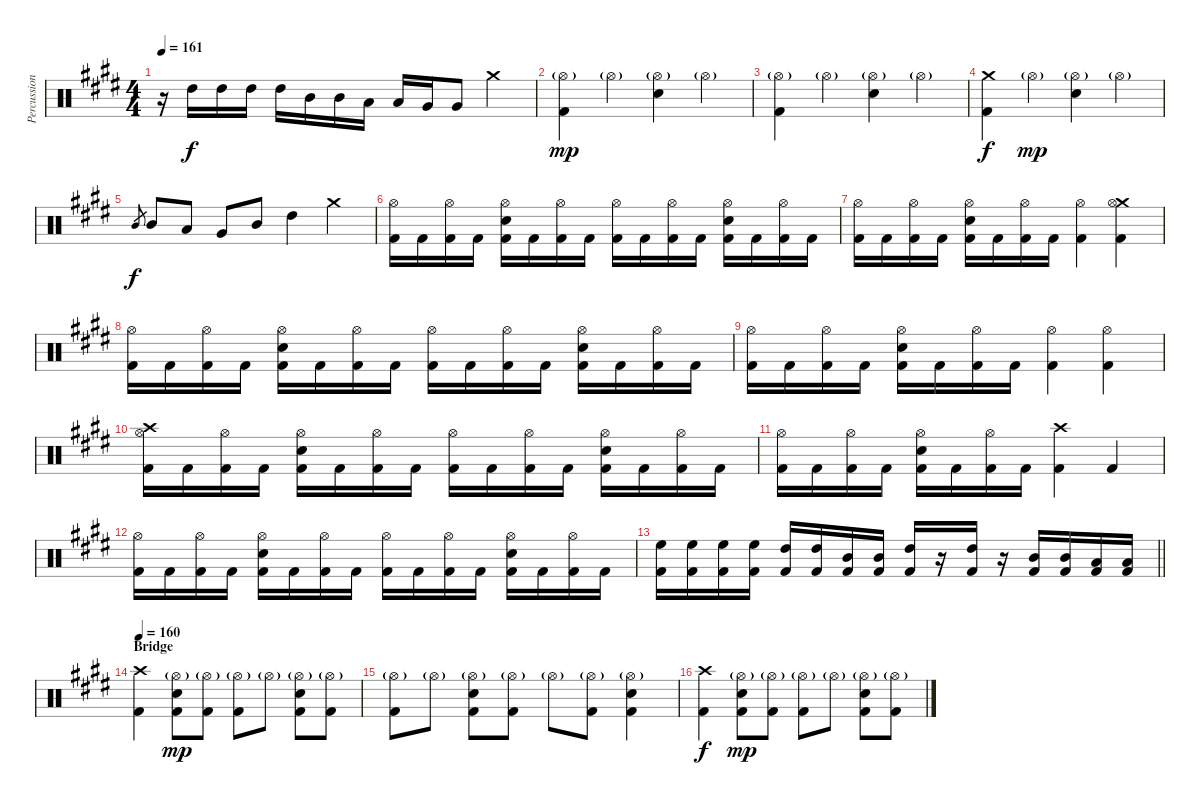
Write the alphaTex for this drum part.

\track ("Percussion (Thomen Stauch)" "Percussion") {instrument percussion}
\staff {score}
\articulation defaults
\ts (4 4)
\tempo 161
\clef neutral
\ks c#minor
r.16{dy mp} "High Tom (hit)".16{dy f} "High Tom (hit)".16 "High Tom (hit)".16 "High Tom (hit)".16 "Mid Tom (hit)".16 "Mid Tom (hit)".16 "Low Tom (hit)".16 "Low Tom (hit)".16 "Very Low Tom (hit)".16 "Very Low Tom (hit)".8 "Crash medium (hit)".4 |
("Hi-Hat (open)"{g} "Kick (hit) 2").4{dy mp} "Hi-Hat (open)"{g}.4 ("Hi-Hat (open)"{g} "Snare (hit) 2").4 "Hi-Hat (open)"{g}.4 |
("Hi-Hat (open)"{g} "Kick (hit) 2").4 "Hi-Hat (open)"{g}.4 ("Hi-Hat (open)"{g} "Snare (hit) 2").4 "Hi-Hat (open)"{g}.4 |
("Crash medium (hit)" "Kick (hit) 2").4{dy f} "Hi-Hat (open)"{g}.4{dy mp} ("Hi-Hat (open)"{g} "Snare (hit) 2").4 "Hi-Hat (open)"{g}.4 |
"Mid Tom (hit)".8{gr dy f} "Mid Tom (hit)".8 "Low Tom (hit)".8 "Very Low Tom (hit)".8 "Mid Tom (hit)".8 "High Tom (hit)".4 "Crash medium (hit)".4 |
("Hi-Hat (open)" "Kick (hit) 2").16 "Kick (hit) 2".16 ("Hi-Hat (open)" "Kick (hit) 2").16 "Kick (hit) 2".16 ("Hi-Hat (open)" "Snare (hit) 2" "Kick (hit) 2").16 "Kick (hit) 2".16 ("Hi-Hat (open)" "Kick (hit) 2").16 "Kick (hit) 2".16 ("Hi-Hat (open)" "Kick (hit) 2").16 "Kick (hit) 2".16 ("Hi-Hat (open)" "Kick (hit) 2").16 "Kick (hit) 2".16 ("Hi-Hat (open)" "Snare (hit) 2" "Kick (hit) 2").16 "Kick (hit) 2".16 ("Hi-Hat (open)" "Kick (hit) 2").16 "Kick (hit) 2".16 |
("Hi-Hat (open)" "Kick (hit) 2").16 "Kick (hit) 2".16 ("Hi-Hat (open)" "Kick (hit) 2").16 "Kick (hit) 2".16 ("Hi-Hat (open)" "Snare (hit) 2" "Kick (hit) 2").16 "Kick (hit) 2".16 ("Hi-Hat (open)" "Kick (hit) 2").16 "Kick (hit) 2".16 ("Hi-Hat (open)" "Kick (hit) 2").4 ("Crash medium (hit)" "Hi-Hat (open)" "Kick (hit) 2").4 |
("Hi-Hat (open)" "Kick (hit) 2").16 "Kick (hit) 2".16 ("Hi-Hat (open)" "Kick (hit) 2").16 "Kick (hit) 2".16 ("Hi-Hat (open)" "Snare (hit) 2" "Kick (hit) 2").16 "Kick (hit) 2".16 ("Hi-Hat (open)" "Kick (hit) 2").16 "Kick (hit) 2".16 ("Hi-Hat (open)" "Kick (hit) 2").16 "Kick (hit) 2".16 ("Hi-Hat (open)" "Kick (hit) 2").16 "Kick (hit) 2".16 ("Hi-Hat (open)" "Snare (hit) 2" "Kick (hit) 2").16 "Kick (hit) 2".16 ("Hi-Hat (open)" "Kick (hit) 2").16 "Kick (hit) 2".16 |
("Hi-Hat (open)" "Kick (hit) 2").16 "Kick (hit) 2".16 ("Hi-Hat (open)" "Kick (hit) 2").16 "Kick (hit) 2".16 ("Hi-Hat (open)" "Snare (hit) 2" "Kick (hit) 2").16 "Kick (hit) 2".16 ("Hi-Hat (open)" "Kick (hit) 2").16 "Kick (hit) 2".16 ("Hi-Hat (open)" "Kick (hit) 2").4 ("Hi-Hat (open)" "Kick (hit) 2").4 |
("Crash high (hit)" "Hi-Hat (open)" "Kick (hit) 2").16 "Kick (hit) 2".16 ("Hi-Hat (open)" "Kick (hit) 2").16 "Kick (hit) 2".16 ("Hi-Hat (open)" "Snare (hit) 2" "Kick (hit) 2").16 "Kick (hit) 2".16 ("Hi-Hat (open)" "Kick (hit) 2").16 "Kick (hit) 2".16 ("Hi-Hat (open)" "Kick (hit) 2").16 "Kick (hit) 2".16 ("Hi-Hat (open)" "Kick (hit) 2").16 "Kick (hit) 2".16 ("Hi-Hat (open)" "Snare (hit) 2" "Kick (hit) 2").16 "Kick (hit) 2".16 ("Hi-Hat (open)" "Kick (hit) 2").16 "Kick (hit) 2".16 |
("Hi-Hat (open)" "Kick (hit) 2").16 "Kick (hit) 2".16 ("Hi-Hat (open)" "Kick (hit) 2").16 "Kick (hit) 2".16 ("Hi-Hat (open)" "Snare (hit) 2" "Kick (hit) 2").16 "Kick (hit) 2".16 ("Hi-Hat (open)" "Kick (hit) 2").16 "Kick (hit) 2".16 ("Crash high (hit)" "Kick (hit) 2").4 "Kick (hit) 2".4 |
("Hi-Hat (open)" "Kick (hit) 2").16 "Kick (hit) 2".16 ("Hi-Hat (open)" "Kick (hit) 2").16 "Kick (hit) 2".16 ("Hi-Hat (open)" "Snare (hit) 2" "Kick (hit) 2").16 "Kick (hit) 2".16 ("Hi-Hat (open)" "Kick (hit) 2").16 "Kick (hit) 2".16 ("Hi-Hat (open)" "Kick (hit) 2").16 "Kick (hit) 2".16 ("Hi-Hat (open)" "Kick (hit) 2").16 "Kick (hit) 2".16 ("Hi-Hat (open)" "Snare (hit) 2" "Kick (hit) 2").16 "Kick (hit) 2".16 ("Hi-Hat (open)" "Kick (hit) 2").16 "Kick (hit) 2".16 |
\barLineRight lightlight
("High Floor Tom (hit)" "Kick (hit) 2").16 ("High Floor Tom (hit)" "Kick (hit) 2").16 ("High Floor Tom (hit)" "Kick (hit) 2").16 ("High Floor Tom (hit)" "Kick (hit) 2").16 ("High Tom (hit)" "Kick (hit) 2").16 ("High Tom (hit)" "Kick (hit) 2").16 ("Mid Tom (hit)" "Kick (hit) 2").16 ("Mid Tom (hit)" "Kick (hit) 2").16 ("High Tom (hit)" "Kick (hit) 2").16 r.16 ("High Tom (hit)" "Kick (hit) 2").16 r.16 ("Mid Tom (hit)" "Kick (hit) 2").16 ("Mid Tom (hit)" "Kick (hit) 2").16 ("Low Tom (hit)" "Kick (hit) 2").16 ("Low Tom (hit)" "Kick (hit) 2").16 |
\section ("" "Bridge")
\tempo 160
("Crash high (hit)" "Kick (hit) 2").4 ("Hi-Hat (open)"{g} "Snare (hit) 2" "Kick (hit) 2").8{dy mp} ("Hi-Hat (open)"{g} "Kick (hit) 2").8 ("Hi-Hat (open)"{g} "Kick (hit) 2").8 "Hi-Hat (open)"{g}.8 ("Hi-Hat (open)"{g} "Snare (hit) 2" "Kick (hit) 2").8 ("Hi-Hat (open)"{g} "Kick (hit) 2").8 |
("Hi-Hat (open)"{g} "Kick (hit) 2").8 "Hi-Hat (open)"{g}.8 ("Hi-Hat (open)"{g} "Snare (hit) 2" "Kick (hit) 2").8 ("Hi-Hat (open)"{g} "Kick (hit) 2").8 "Hi-Hat (open)"{g}.8 ("Hi-Hat (open)"{g} "Kick (hit) 2").8 ("Hi-Hat (open)"{g} "Snare (hit) 2" "Kick (hit) 2").4 |
("Crash high (hit)" "Kick (hit) 2").4{dy f} ("Hi-Hat (open)"{g} "Snare (hit) 2" "Kick (hit) 2").8{dy mp} ("Hi-Hat (open)"{g} "Kick (hit) 2").8 ("Hi-Hat (open)"{g} "Kick (hit) 2").8 "Hi-Hat (open)"{g}.8 ("Hi-Hat (open)"{g} "Snare (hit) 2" "Kick (hit) 2").8 ("Hi-Hat (open)"{g} "Kick (hit) 2").8
